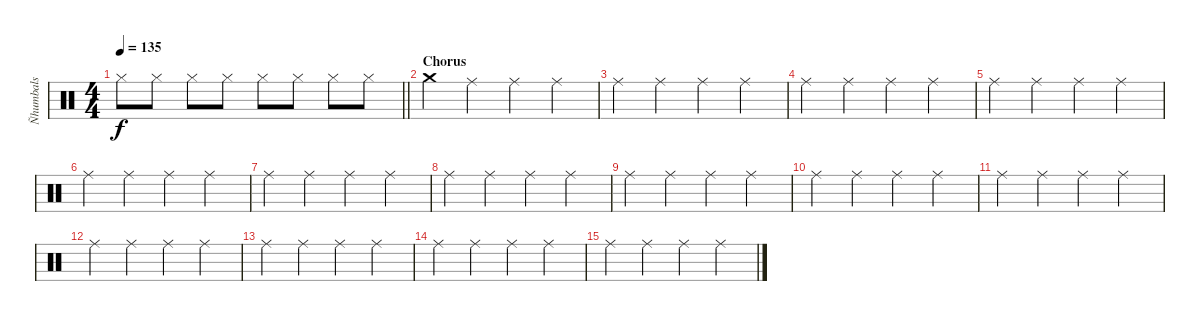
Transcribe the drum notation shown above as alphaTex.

\track ("Ñhumbals" "Ñhumbals") {instrument percussion}
\staff {score}
\articulation defaults
\ts (4 4)
\tempo 135
\clef neutral
\barLineRight lightlight
\ks c "Hi-Hat (closed)".8{dy f} "Hi-Hat (closed)".8 "Hi-Hat (closed)".8 "Hi-Hat (closed)".8 "Hi-Hat (closed)".8 "Hi-Hat (closed)".8 "Hi-Hat (closed)".8 "Hi-Hat (closed)".8
|
\section ("" "Chorus")
"Crash medium (hit)".4 "Ride (middle)".4 "Ride (middle)".4 "Ride (middle)".4 |
"Ride (middle)".4 "Ride (middle)".4 "Ride (middle)".4 "Ride (middle)".4 |
"Ride (middle)".4 "Ride (middle)".4 "Ride (middle)".4 "Ride (middle)".4 |
"Ride (middle)".4 "Ride (middle)".4 "Ride (middle)".4 "Ride (middle)".4 |
"Ride (middle)".4 "Ride (middle)".4 "Ride (middle)".4 "Ride (middle)".4 |
"Ride (middle)".4 "Ride (middle)".4 "Ride (middle)".4 "Ride (middle)".4 |
"Ride (middle)".4 "Ride (middle)".4 "Ride (middle)".4 "Ride (middle)".4 |
"Ride (middle)".4 "Ride (middle)".4 "Ride (middle)".4 "Ride (middle)".4 |
"Ride (middle)".4 "Ride (middle)".4 "Ride (middle)".4 "Ride (middle)".4 |
"Ride (middle)".4 "Ride (middle)".4 "Ride (middle)".4 "Ride (middle)".4 |
"Ride (middle)".4 "Ride (middle)".4 "Ride (middle)".4 "Ride (middle)".4 |
"Ride (middle)".4 "Ride (middle)".4 "Ride (middle)".4 "Ride (middle)".4 |
"Ride (middle)".4 "Ride (middle)".4 "Ride (middle)".4 "Ride (middle)".4 |
"Ride (middle)".4 "Ride (middle)".4 "Ride (middle)".4 "Ride (middle)".4
